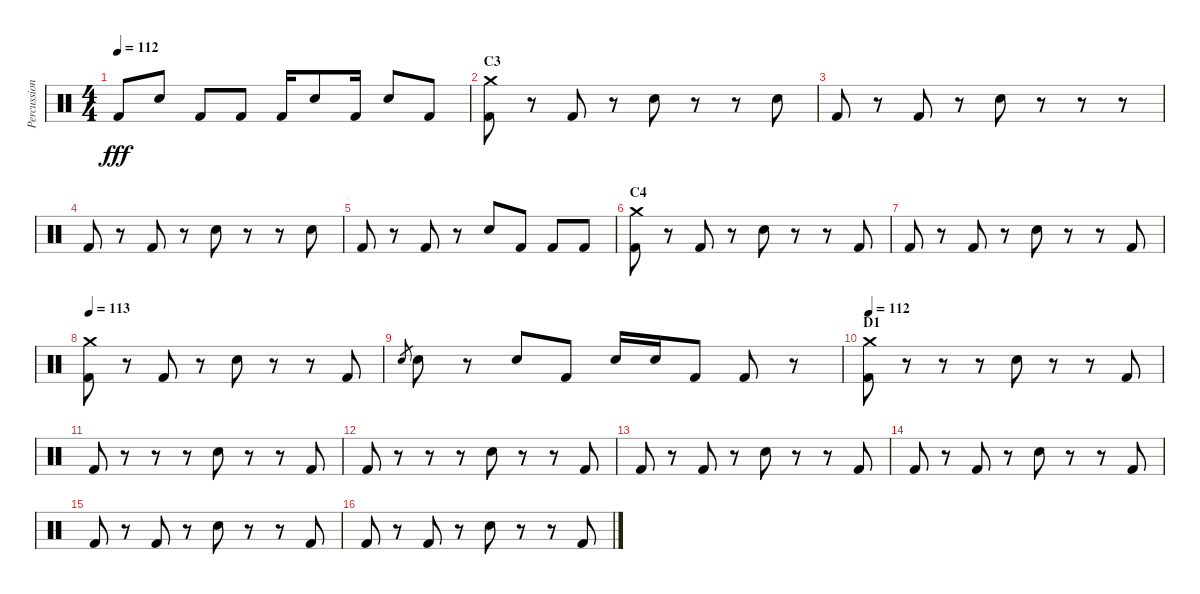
\track ("Percussion" "Percussion") {instrument percussion}
\staff {score}
\articulation defaults
\ts (4 4)
\tempo 112
\clef neutral
\ks c "Kick (hit) 2".8{dy fff} "Electric Snare (hit)".8 "Kick (hit) 2".8 "Kick (hit) 2".8 "Kick (hit) 2".16 "Electric Snare (hit)".8 "Kick (hit) 2".16 "Electric Snare (hit)".8 "Kick (hit) 2".8
|
\section ("" "C3")
("Kick (hit) 2" "Crash medium (hit)").8 r.8 "Kick (hit) 2".8 r.8 "Electric Snare (hit)".8 r.8 r.8 "Electric Snare (hit)".8 |
"Kick (hit) 2".8 r.8 "Kick (hit) 2".8 r.8 "Electric Snare (hit)".8 r.8 r.8 r.8 |
"Kick (hit) 2".8 r.8 "Kick (hit) 2".8 r.8 "Electric Snare (hit)".8 r.8 r.8 "Electric Snare (hit)".8 |
"Kick (hit) 2".8 r.8 "Kick (hit) 2".8 r.8 "Electric Snare (hit)".8 "Kick (hit) 2".8 "Kick (hit) 2".8 "Kick (hit) 2".8 |
\section ("" "C4")
("Kick (hit) 2" "Crash medium (hit)").8 r.8 "Kick (hit) 2".8 r.8 "Electric Snare (hit)".8 r.8 r.8 "Kick (hit) 2".8 |
"Kick (hit) 2".8 r.8 "Kick (hit) 2".8 r.8 "Electric Snare (hit)".8 r.8 r.8 "Kick (hit) 2".8 |
\tempo 113
("Kick (hit) 2" "Crash medium (hit)").8 r.8 "Kick (hit) 2".8 r.8 "Electric Snare (hit)".8 r.8 r.8 "Kick (hit) 2".8 |
"Electric Snare (hit)".8{gr} "Electric Snare (hit)".8 r.8 "Electric Snare (hit)".8 "Kick (hit) 2".8 "Electric Snare (hit)".16 "Electric Snare (hit)".16 "Kick (hit) 2".8 "Kick (hit) 2".8 r.8 |
\section ("" "D1")
\tempo 112
("Kick (hit) 2" "Crash medium (hit)").8 r.8 r.8 r.8 "Electric Snare (hit)".8 r.8 r.8 "Kick (hit) 2".8 |
"Kick (hit) 2".8 r.8 r.8 r.8 "Electric Snare (hit)".8 r.8 r.8 "Kick (hit) 2".8 |
"Kick (hit) 2".8 r.8 r.8 r.8 "Electric Snare (hit)".8 r.8 r.8 "Kick (hit) 2".8 |
"Kick (hit) 2".8 r.8 "Kick (hit) 2".8 r.8 "Electric Snare (hit)".8 r.8 r.8 "Kick (hit) 2".8 |
"Kick (hit) 2".8 r.8 "Kick (hit) 2".8 r.8 "Electric Snare (hit)".8 r.8 r.8 "Kick (hit) 2".8 |
"Kick (hit) 2".8 r.8 "Kick (hit) 2".8 r.8 "Electric Snare (hit)".8 r.8 r.8 "Kick (hit) 2".8 |
"Kick (hit) 2".8 r.8 "Kick (hit) 2".8 r.8 "Electric Snare (hit)".8 r.8 r.8 "Kick (hit) 2".8
